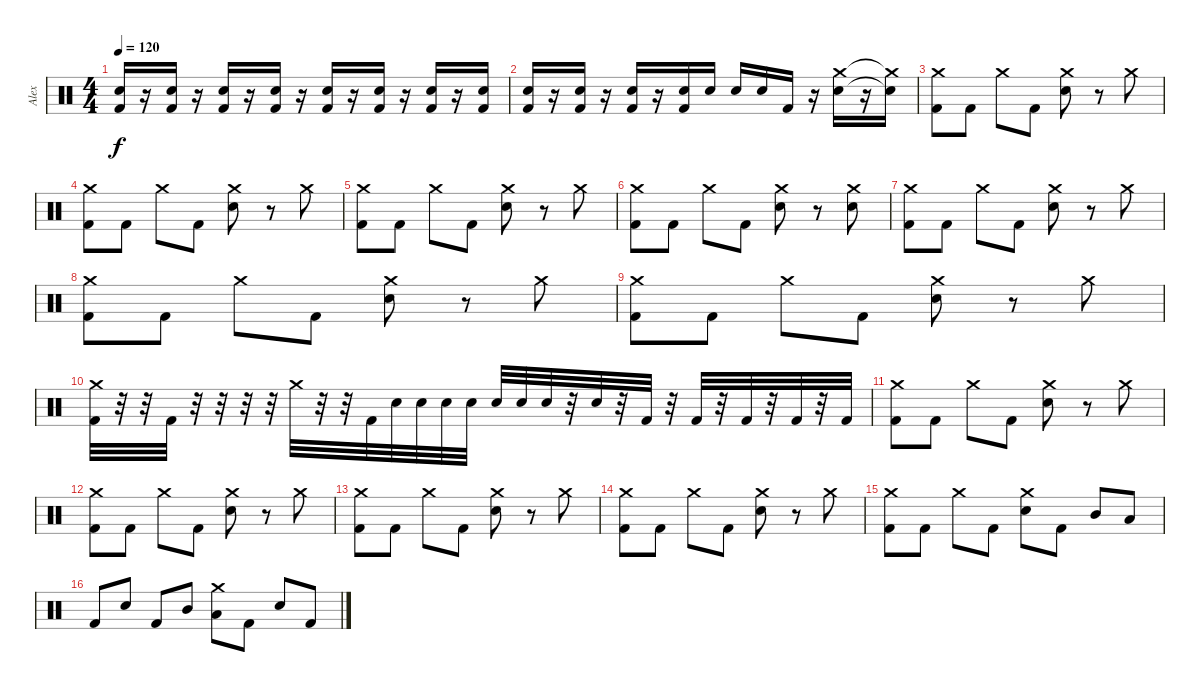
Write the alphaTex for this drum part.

\track ("Alex" "Alex") {instrument percussion}
\staff {score}
\articulation defaults
\ts (4 4)
\tempo 120
\clef neutral
\ks c
("Snare (hit) 2" "Kick (hit) 2").16{dy f} r.16 ("Snare (hit) 2" "Kick (hit) 2").16 r.16 ("Snare (hit) 2" "Kick (hit) 2").16 r.16 ("Snare (hit) 2" "Kick (hit) 2").16 r.16 ("Snare (hit) 2" "Kick (hit) 2").16 r.16 ("Snare (hit) 2" "Kick (hit) 2").16 r.16 ("Snare (hit) 2" "Kick (hit) 2").16 r.16 ("Snare (hit) 2" "Kick (hit) 2").16 |
("Snare (hit) 2" "Kick (hit) 2").16 r.16 ("Snare (hit) 2" "Kick (hit) 2").16 r.16 ("Snare (hit) 2" "Kick (hit) 2").16 r.16 ("Snare (hit) 2" "Kick (hit) 2").16 "Snare (hit) 2".16 "Snare (hit) 2".16 "Snare (hit) 2".16 "Kick (hit) 2".16 r.16 ("Crash medium (hit)" "Snare (hit) 2").16 r.16 ("Crash medium (hit)"{t} "Snare (hit) 2"{t}).16 |
("Crash medium (hit)" "Kick (hit) 2").8 "Kick (hit) 2".8 "Crash medium (hit)".8 "Kick (hit) 2".8 ("Crash medium (hit)" "Snare (hit) 2").8 r.8 "Crash medium (hit)".8 |
("Crash medium (hit)" "Kick (hit) 2").8 "Kick (hit) 2".8 "Crash medium (hit)".8 "Kick (hit) 2".8 ("Crash medium (hit)" "Snare (hit) 2").8 r.8 "Crash medium (hit)".8 |
("Crash medium (hit)" "Kick (hit) 2").8 "Kick (hit) 2".8 "Crash medium (hit)".8 "Kick (hit) 2".8 ("Crash medium (hit)" "Snare (hit) 2").8 r.8 "Crash medium (hit)".8 |
("Crash medium (hit)" "Kick (hit) 2").8 "Kick (hit) 2".8 "Crash medium (hit)".8 "Kick (hit) 2".8 ("Crash medium (hit)" "Snare (hit) 2").8 r.8 ("Crash medium (hit)" "Snare (hit) 2").8 |
("Crash medium (hit)" "Kick (hit) 2").8 "Kick (hit) 2".8 "Crash medium (hit)".8 "Kick (hit) 2".8 ("Crash medium (hit)" "Snare (hit) 2").8 r.8 "Crash medium (hit)".8 |
("Crash medium (hit)" "Kick (hit) 2").8 "Kick (hit) 2".8 "Crash medium (hit)".8 "Kick (hit) 2".8 ("Crash medium (hit)" "Snare (hit) 2").8 r.8 "Crash medium (hit)".8 |
("Crash medium (hit)" "Kick (hit) 2").8 "Kick (hit) 2".8 "Crash medium (hit)".8 "Kick (hit) 2".8 ("Crash medium (hit)" "Snare (hit) 2").8 r.8 "Crash medium (hit)".8 |
("Crash medium (hit)" "Kick (hit) 2").32 r.32 r.32 "Kick (hit) 2".32 r.32 r.32 r.32 r.32 "Crash medium (hit)".32 r.32 r.32 "Kick (hit) 2".32 "Snare (hit) 2".32 "Snare (hit) 2".32 "Snare (hit) 2".32 "Snare (hit) 2".32 "Snare (hit) 2".32 "Snare (hit) 2".32 "Snare (hit) 2".32 r.32 "Snare (hit) 2".32 r.32 "Kick (hit) 2".32 r.32 "Kick (hit) 2".32 r.32 "Kick (hit) 2".32 r.32 "Kick (hit) 2".32 r.32 "Kick (hit) 2".32 |
("Crash medium (hit)" "Kick (hit) 2").8 "Kick (hit) 2".8 "Crash medium (hit)".8 "Kick (hit) 2".8 ("Crash medium (hit)" "Snare (hit) 2").8 r.8 "Crash medium (hit)".8 |
("Crash medium (hit)" "Kick (hit) 2").8 "Kick (hit) 2".8 "Crash medium (hit)".8 "Kick (hit) 2".8 ("Crash medium (hit)" "Snare (hit) 2").8 r.8 "Crash medium (hit)".8 |
("Crash medium (hit)" "Kick (hit) 2").8 "Kick (hit) 2".8 "Crash medium (hit)".8 "Kick (hit) 2".8 ("Crash medium (hit)" "Snare (hit) 2").8 r.8 "Crash medium (hit)".8 |
("Crash medium (hit)" "Kick (hit) 2").8 "Kick (hit) 2".8 "Crash medium (hit)".8 "Kick (hit) 2".8 ("Crash medium (hit)" "Snare (hit) 2").8 r.8 "Crash medium (hit)".8 |
("Crash medium (hit)" "Kick (hit) 2").8 "Kick (hit) 2".8 "Crash medium (hit)".8 "Kick (hit) 2".8 ("Crash medium (hit)" "Snare (hit) 2").8 "Kick (hit) 2".8 "Mid Tom (hit)".8 "Low Tom (hit)".8 |
"Kick (hit) 2".8 "Snare (hit) 2".8 "Kick (hit) 2".8 "Mid Tom (hit)".8 ("Crash medium (hit)" "Low Tom (hit)").8 "Kick (hit) 2".8 "Snare (hit) 2".8 "Kick (hit) 2".8
